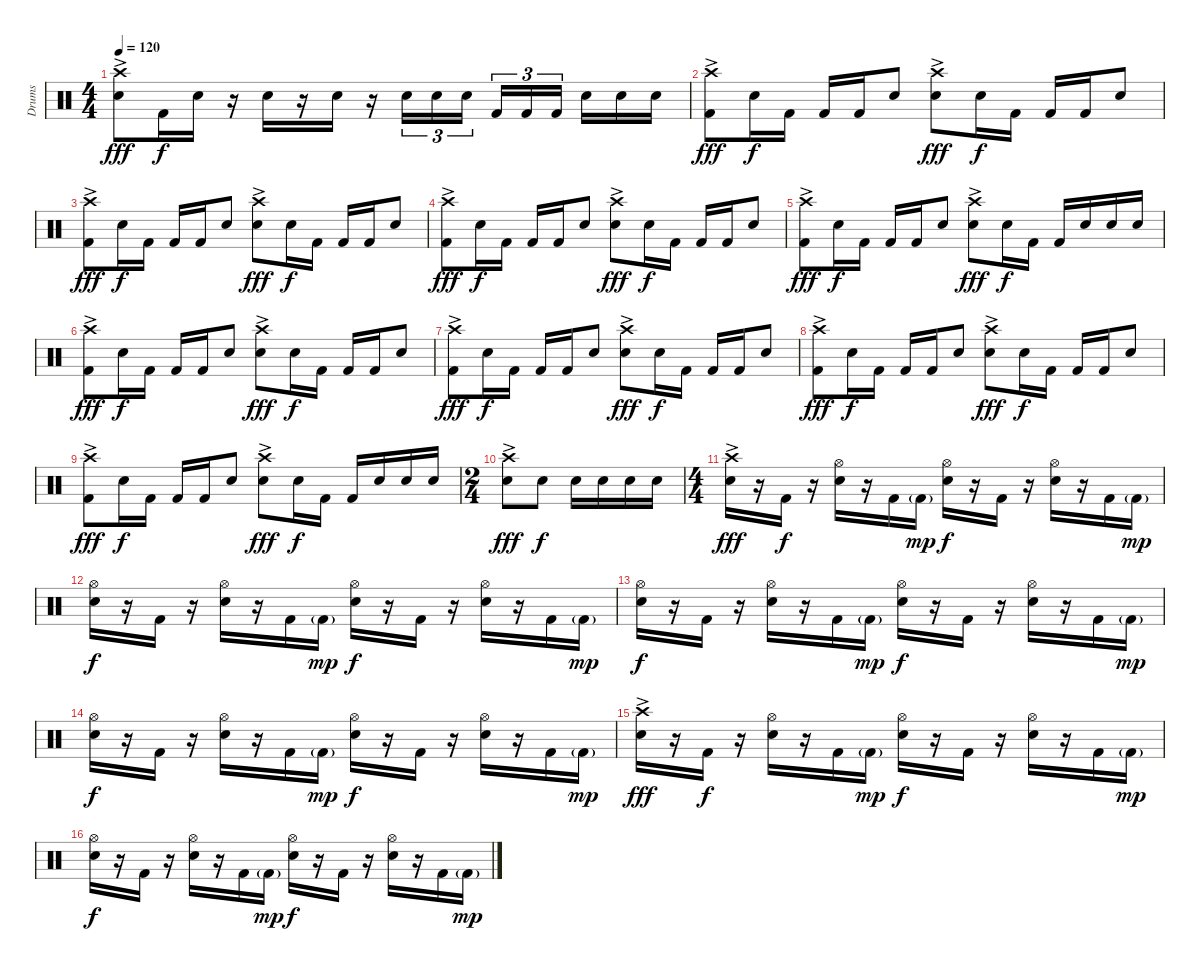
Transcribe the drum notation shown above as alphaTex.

\track ("Drums" "Drums") {instrument percussion}
\staff {score}
\articulation defaults
\ts (4 4)
\tempo 120
\clef neutral
\ks c
("Crash high (hit)"{ac} "Snare (hit) 2").8{dy fff} "Kick (hit) 2".16{dy f} "Snare (hit) 2".16 r.16 "Snare (hit) 2".16 r.16 "Snare (hit) 2".16 r.16 "Snare (hit) 2".16{tu (3 2)} "Snare (hit) 2".16{tu (3 2)} "Snare (hit) 2".16{tu (3 2)} "Kick (hit) 2".16{tu (3 2)} "Kick (hit) 2".16{tu (3 2)} "Kick (hit) 2".16{tu (3 2)} "Snare (hit) 2".16 "Snare (hit) 2".16 "Snare (hit) 2".16 |
("Crash high (hit)"{ac} "Kick (hit) 2").8{dy fff} "Snare (hit) 2".16{dy f} "Kick (hit) 2".16 "Kick (hit) 2".16 "Kick (hit) 2".16 "Snare (hit) 2".8 ("Crash high (hit)"{ac} "Snare (hit) 2").8{dy fff} "Snare (hit) 2".16{dy f} "Kick (hit) 2".16 "Kick (hit) 2".16 "Kick (hit) 2".16 "Snare (hit) 2".8 |
("Crash high (hit)"{ac} "Kick (hit) 2").8{dy fff} "Snare (hit) 2".16{dy f} "Kick (hit) 2".16 "Kick (hit) 2".16 "Kick (hit) 2".16 "Snare (hit) 2".8 ("Crash high (hit)"{ac} "Snare (hit) 2").8{dy fff} "Snare (hit) 2".16{dy f} "Kick (hit) 2".16 "Kick (hit) 2".16 "Kick (hit) 2".16 "Snare (hit) 2".8 |
("Crash high (hit)"{ac} "Kick (hit) 2").8{dy fff} "Snare (hit) 2".16{dy f} "Kick (hit) 2".16 "Kick (hit) 2".16 "Kick (hit) 2".16 "Snare (hit) 2".8 ("Crash high (hit)"{ac} "Snare (hit) 2").8{dy fff} "Snare (hit) 2".16{dy f} "Kick (hit) 2".16 "Kick (hit) 2".16 "Kick (hit) 2".16 "Snare (hit) 2".8 |
("Crash high (hit)"{ac} "Kick (hit) 2").8{dy fff} "Snare (hit) 2".16{dy f} "Kick (hit) 2".16 "Kick (hit) 2".16 "Kick (hit) 2".16 "Snare (hit) 2".8 ("Crash high (hit)"{ac} "Snare (hit) 2").8{dy fff} "Snare (hit) 2".16{dy f} "Kick (hit) 2".16 "Kick (hit) 2".16 "Snare (hit) 2".16 "Snare (hit) 2".16 "Snare (hit) 2".16 |
("Crash high (hit)"{ac} "Kick (hit) 2").8{dy fff} "Snare (hit) 2".16{dy f} "Kick (hit) 2".16 "Kick (hit) 2".16 "Kick (hit) 2".16 "Snare (hit) 2".8 ("Crash high (hit)"{ac} "Snare (hit) 2").8{dy fff} "Snare (hit) 2".16{dy f} "Kick (hit) 2".16 "Kick (hit) 2".16 "Kick (hit) 2".16 "Snare (hit) 2".8 |
("Crash high (hit)"{ac} "Kick (hit) 2").8{dy fff} "Snare (hit) 2".16{dy f} "Kick (hit) 2".16 "Kick (hit) 2".16 "Kick (hit) 2".16 "Snare (hit) 2".8 ("Crash high (hit)"{ac} "Snare (hit) 2").8{dy fff} "Snare (hit) 2".16{dy f} "Kick (hit) 2".16 "Kick (hit) 2".16 "Kick (hit) 2".16 "Snare (hit) 2".8 |
("Crash high (hit)"{ac} "Kick (hit) 2").8{dy fff} "Snare (hit) 2".16{dy f} "Kick (hit) 2".16 "Kick (hit) 2".16 "Kick (hit) 2".16 "Snare (hit) 2".8 ("Crash high (hit)"{ac} "Snare (hit) 2").8{dy fff} "Snare (hit) 2".16{dy f} "Kick (hit) 2".16 "Kick (hit) 2".16 "Kick (hit) 2".16 "Snare (hit) 2".8 |
("Crash high (hit)"{ac} "Kick (hit) 2").8{dy fff} "Snare (hit) 2".16{dy f} "Kick (hit) 2".16 "Kick (hit) 2".16 "Kick (hit) 2".16 "Snare (hit) 2".8 ("Crash high (hit)"{ac} "Snare (hit) 2").8{dy fff} "Snare (hit) 2".16{dy f} "Kick (hit) 2".16 "Kick (hit) 2".16 "Snare (hit) 2".16 "Snare (hit) 2".16 "Snare (hit) 2".16 |
\ts (2 4)
("Crash high (hit)"{ac} "Snare (hit) 2").8{dy fff} "Snare (hit) 2".8{dy f} "Snare (hit) 2".16 "Snare (hit) 2".16 "Snare (hit) 2".16 "Snare (hit) 2".16 |
\ts (4 4)
("Crash high (hit)"{ac} "Snare (hit) 2").16{dy fff} r.16 "Kick (hit) 2".16{dy f} r.16 ("Hi-Hat (open)" "Snare (hit) 2").16 r.16 "Kick (hit) 2".16 "Kick (hit) 2"{g}.16{dy mp} ("Hi-Hat (open)" "Snare (hit) 2").16{dy f} r.16 "Kick (hit) 2".16 r.16 ("Hi-Hat (open)" "Snare (hit) 2").16 r.16 "Kick (hit) 2".16 "Kick (hit) 2"{g}.16{dy mp} |
("Hi-Hat (open)" "Snare (hit) 2").16{dy f} r.16 "Kick (hit) 2".16 r.16 ("Hi-Hat (open)" "Snare (hit) 2").16 r.16 "Kick (hit) 2".16 "Kick (hit) 2"{g}.16{dy mp} ("Hi-Hat (open)" "Snare (hit) 2").16{dy f} r.16 "Kick (hit) 2".16 r.16 ("Hi-Hat (open)" "Snare (hit) 2").16 r.16 "Kick (hit) 2".16 "Kick (hit) 2"{g}.16{dy mp} |
("Hi-Hat (open)" "Snare (hit) 2").16{dy f} r.16 "Kick (hit) 2".16 r.16 ("Hi-Hat (open)" "Snare (hit) 2").16 r.16 "Kick (hit) 2".16 "Kick (hit) 2"{g}.16{dy mp} ("Hi-Hat (open)" "Snare (hit) 2").16{dy f} r.16 "Kick (hit) 2".16 r.16 ("Hi-Hat (open)" "Snare (hit) 2").16 r.16 "Kick (hit) 2".16 "Kick (hit) 2"{g}.16{dy mp} |
("Hi-Hat (open)" "Snare (hit) 2").16{dy f} r.16 "Kick (hit) 2".16 r.16 ("Hi-Hat (open)" "Snare (hit) 2").16 r.16 "Kick (hit) 2".16 "Kick (hit) 2"{g}.16{dy mp} ("Hi-Hat (open)" "Snare (hit) 2").16{dy f} r.16 "Kick (hit) 2".16 r.16 ("Hi-Hat (open)" "Snare (hit) 2").16 r.16 "Kick (hit) 2".16 "Kick (hit) 2"{g}.16{dy mp} |
("Crash high (hit)"{ac} "Snare (hit) 2").16{dy fff} r.16 "Kick (hit) 2".16{dy f} r.16 ("Hi-Hat (open)" "Snare (hit) 2").16 r.16 "Kick (hit) 2".16 "Kick (hit) 2"{g}.16{dy mp} ("Hi-Hat (open)" "Snare (hit) 2").16{dy f} r.16 "Kick (hit) 2".16 r.16 ("Hi-Hat (open)" "Snare (hit) 2").16 r.16 "Kick (hit) 2".16 "Kick (hit) 2"{g}.16{dy mp} |
("Hi-Hat (open)" "Snare (hit) 2").16{dy f} r.16 "Kick (hit) 2".16 r.16 ("Hi-Hat (open)" "Snare (hit) 2").16 r.16 "Kick (hit) 2".16 "Kick (hit) 2"{g}.16{dy mp} ("Hi-Hat (open)" "Snare (hit) 2").16{dy f} r.16 "Kick (hit) 2".16 r.16 ("Hi-Hat (open)" "Snare (hit) 2").16 r.16 "Kick (hit) 2".16 "Kick (hit) 2"{g}.16{dy mp}
